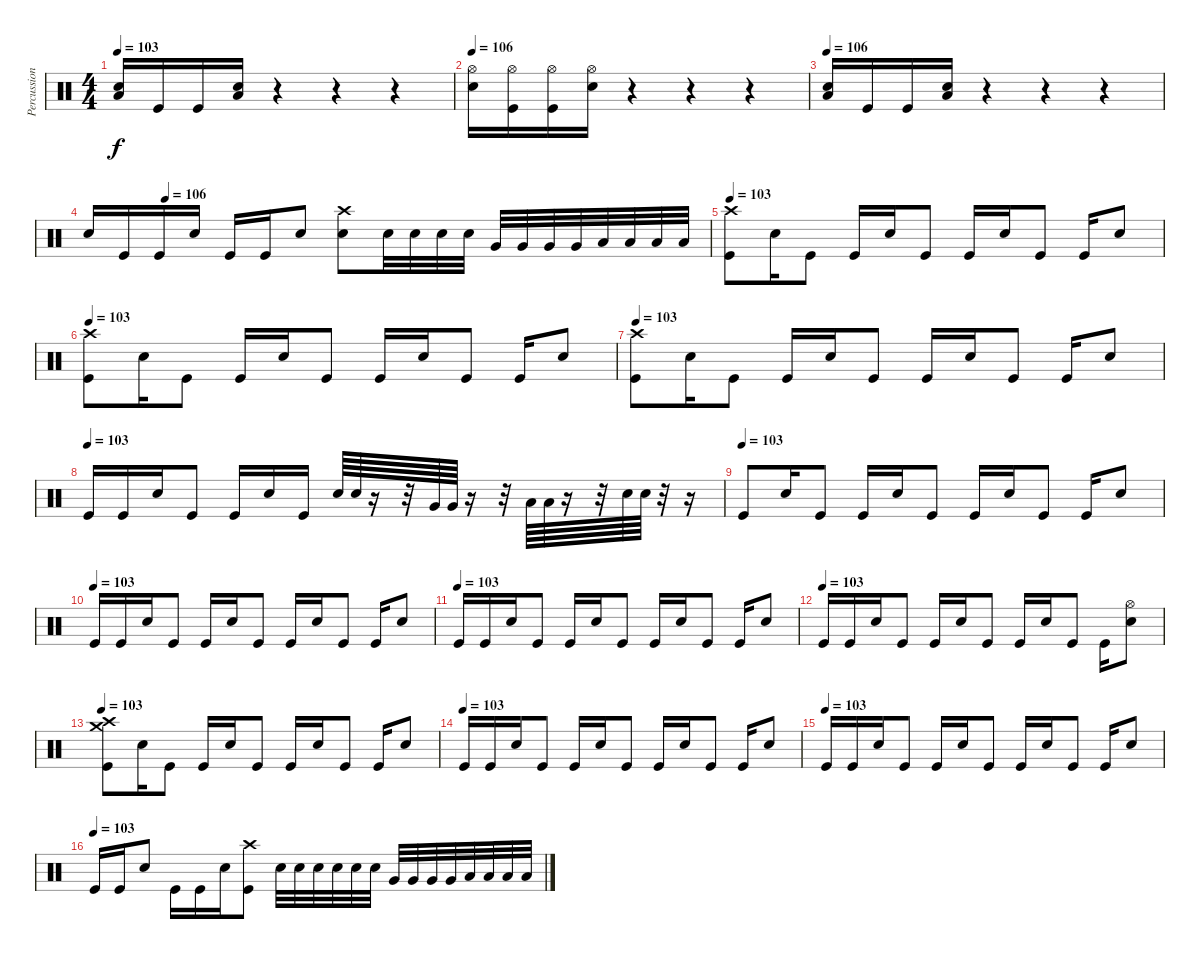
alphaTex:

\track ("Percussion" "Percussion") {instrument percussion}
\staff {score}
\articulation defaults
\ts (4 4)
\tempo 103
\tempo 106
\tempo 103
\clef neutral
\ks c
("Electric Snare (hit)" "Low Floor Tom (hit)").16{dy f} "Kick (hit)".16 "Kick (hit)".16 ("Electric Snare (hit)" "Low Floor Tom (hit)").16 r.4 r.4 r.4 |
\tempo 106
("Electric Snare (hit)" "Hi-Hat (open)").16 ("Hi-Hat (open)" "Kick (hit)").16 ("Hi-Hat (open)" "Kick (hit)").16 ("Electric Snare (hit)" "Hi-Hat (open)").16 r.4 r.4 r.4 |
\tempo 106
("Electric Snare (hit)" "Low Floor Tom (hit)").16 "Kick (hit)".16 "Kick (hit)".16 ("Electric Snare (hit)" "Low Floor Tom (hit)").16 r.4 r.4 r.4 |
\tempo (106 0.125)
"Electric Snare (hit)".16 "Kick (hit)".16 "Kick (hit)".16 "Electric Snare (hit)".16 "Kick (hit)".16 "Kick (hit)".16 "Electric Snare (hit)".8 ("Crash high (hit)" "Electric Snare (hit)").8 "Electric Snare (hit)".32 "Electric Snare (hit)".32 "Electric Snare (hit)".32 "Electric Snare (hit)".32 "Very Low Tom (hit)".32 "Very Low Tom (hit)".32 "Very Low Tom (hit)".32 "Very Low Tom (hit)".32 "Low Floor Tom (hit)".32 "Low Floor Tom (hit)".32 "Low Floor Tom (hit)".32 "Low Floor Tom (hit)".32 |
\tempo 103
("Crash high (hit)" "Kick (hit)").8 "Electric Snare (hit)".16 "Kick (hit)".8 "Kick (hit)".16 "Electric Snare (hit)".16 "Kick (hit)".8 "Kick (hit)".16 "Electric Snare (hit)".16 "Kick (hit)".8 "Kick (hit)".16 "Electric Snare (hit)".8 |
\tempo 103
("Crash high (hit)" "Kick (hit)").8 "Electric Snare (hit)".16 "Kick (hit)".8 "Kick (hit)".16 "Electric Snare (hit)".16 "Kick (hit)".8 "Kick (hit)".16 "Electric Snare (hit)".16 "Kick (hit)".8 "Kick (hit)".16 "Electric Snare (hit)".8 |
\tempo 103
("Crash high (hit)" "Kick (hit)").8 "Electric Snare (hit)".16 "Kick (hit)".8 "Kick (hit)".16 "Electric Snare (hit)".16 "Kick (hit)".8 "Kick (hit)".16 "Electric Snare (hit)".16 "Kick (hit)".8 "Kick (hit)".16 "Electric Snare (hit)".8 |
\tempo (103)
"Kick (hit)".16 "Kick (hit)".16 "Electric Snare (hit)".16 "Kick (hit)".8 "Kick (hit)".16 "Electric Snare (hit)".16 "Kick (hit)".16 "Electric Snare (hit)".64 "Electric Snare (hit)".64 r.16 r.32 "Very Low Tom (hit)".64 "Very Low Tom (hit)".64 r.16 r.32 "Low Floor Tom (hit)".64 "Low Floor Tom (hit)".64 r.16 r.32 "Electric Snare (hit)".64 "Electric Snare (hit)".64 r.32 r.16 |
\tempo (103)
"Kick (hit)".8 "Electric Snare (hit)".16 "Kick (hit)".8 "Kick (hit)".16 "Electric Snare (hit)".16 "Kick (hit)".8 "Kick (hit)".16 "Electric Snare (hit)".16 "Kick (hit)".8 "Kick (hit)".16 "Electric Snare (hit)".8 |
\tempo (103)
"Kick (hit)".16 "Kick (hit)".16 "Electric Snare (hit)".16 "Kick (hit)".8 "Kick (hit)".16 "Electric Snare (hit)".16 "Kick (hit)".8 "Kick (hit)".16 "Electric Snare (hit)".16 "Kick (hit)".8 "Kick (hit)".16 "Electric Snare (hit)".8 |
\tempo (103)
"Kick (hit)".16 "Kick (hit)".16 "Electric Snare (hit)".16 "Kick (hit)".8 "Kick (hit)".16 "Electric Snare (hit)".16 "Kick (hit)".8 "Kick (hit)".16 "Electric Snare (hit)".16 "Kick (hit)".8 "Kick (hit)".16 "Electric Snare (hit)".8 |
\tempo (103)
"Kick (hit)".16 "Kick (hit)".16 "Electric Snare (hit)".16 "Kick (hit)".8 "Kick (hit)".16 "Electric Snare (hit)".16 "Kick (hit)".8 "Kick (hit)".16 "Electric Snare (hit)".16 "Kick (hit)".8 "Kick (hit)".16 ("Electric Snare (hit)" "Hi-Hat (open)").8 |
\tempo 103
("Crash high (hit)" "Crash medium (hit)" "Kick (hit)").8 "Electric Snare (hit)".16 "Kick (hit)".8 "Kick (hit)".16 "Electric Snare (hit)".16 "Kick (hit)".8 "Kick (hit)".16 "Electric Snare (hit)".16 "Kick (hit)".8 "Kick (hit)".16 "Electric Snare (hit)".8 |
\tempo (103)
"Kick (hit)".16 "Kick (hit)".16 "Electric Snare (hit)".16 "Kick (hit)".8 "Kick (hit)".16 "Electric Snare (hit)".16 "Kick (hit)".8 "Kick (hit)".16 "Electric Snare (hit)".16 "Kick (hit)".8 "Kick (hit)".16 "Electric Snare (hit)".8 |
\tempo (103)
"Kick (hit)".16 "Kick (hit)".16 "Electric Snare (hit)".16 "Kick (hit)".8 "Kick (hit)".16 "Electric Snare (hit)".16 "Kick (hit)".8 "Kick (hit)".16 "Electric Snare (hit)".16 "Kick (hit)".8 "Kick (hit)".16 "Electric Snare (hit)".8 |
\tempo (103)
"Kick (hit)".16 "Kick (hit)".16 "Electric Snare (hit)".8 "Kick (hit)".16 "Kick (hit)".16 "Electric Snare (hit)".16 ("Crash high (hit)" "Kick (hit)").8 "Electric Snare (hit)".32 "Electric Snare (hit)".32 "Electric Snare (hit)".32 "Electric Snare (hit)".32 "Electric Snare (hit)".32 "Electric Snare (hit)".32 "Very Low Tom (hit)".32 "Very Low Tom (hit)".32 "Very Low Tom (hit)".32 "Very Low Tom (hit)".32 "Low Floor Tom (hit)".32 "Low Floor Tom (hit)".32 "Low Floor Tom (hit)".32 "Low Floor Tom (hit)".32
